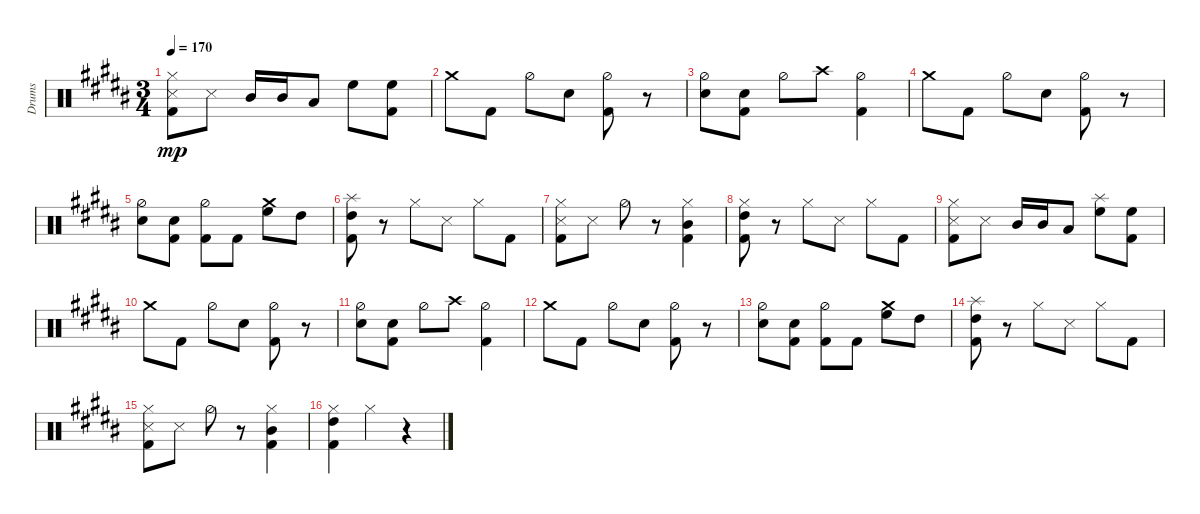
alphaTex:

\defaultSystemsLayout 4
\bracketExtendMode groupsimilarinstruments
\otherSystemsTrackNameOrientation horizontal
\track ("Drumkit" "Drums") {instrument percussion}
\staff {score}
\articulation defaults
\ts (3 4)
\tempo 170
\clef neutral
\ks b
("Hi-Hat (closed)"{acc bb} "Snare (side stick) 3"{acc bb} "Kick (hit) 2"{acc bb}).8{dy mp beam Down} "Snare (side stick) 3"{acc bb}.8{beam Down} "Mid Tom (hit)"{acc bb}.16{beam Up} "Mid Tom (hit)"{acc bb}.16{beam Up} "Low Tom (hit)"{acc bb}.8{beam Up} "High Floor Tom (hit)"{acc bb}.8{beam Down} ("High Floor Tom (hit)"{acc bb} "Kick (hit) 2"{acc bb}).8{beam Down} |
"Crash medium (hit)"{acc bb}.8{beam Down} "Kick (hit) 2"{acc bb}.8{beam Down} "Hi-Hat (half)"{acc bb}.8{beam Down} "Snare (hit) 2"{acc bb}.8{beam Down} ("Hi-Hat (half)"{acc bb} "Kick (hit) 2"{acc bb}).8{beam Down} r.8{beam Down} |
("Hi-Hat (half)"{acc bb} "Snare (hit) 2"{acc bb}).8{beam Down} ("Snare (hit) 2"{acc bb} "Kick (hit) 2"{acc bb}).8{beam Down} "Hi-Hat (half)"{acc bb}.8{beam Down} "Crash high (hit)"{acc bb}.8{beam Down} ("Hi-Hat (half)"{acc bb} "Kick (hit) 2"{acc bb}).4{beam Down} |
"Crash medium (hit)"{acc bb}.8{beam Down} "Kick (hit) 2"{acc bb}.8{beam Down} "Hi-Hat (half)"{acc bb}.8{beam Down} "Snare (hit) 2"{acc bb}.8{beam Down} ("Hi-Hat (half)"{acc bb} "Kick (hit) 2"{acc bb}).8{beam Down} r.8{beam Down} |
("Hi-Hat (half)"{acc bb} "Snare (hit) 2"{acc bb}).8{beam Down} ("Snare (hit) 2"{acc bb} "Kick (hit) 2"{acc bb}).8{beam Down} ("Hi-Hat (half)"{acc bb} "Kick (hit) 2"{acc bb}).8{beam Down} "Kick (hit) 2"{acc bb}.8{beam Down} ("High Floor Tom (hit)"{acc bb} "Crash medium (hit)"{acc bb}).8{beam Down} "High Tom (hit)"{acc bb}.8{beam Down} |
("High Tom (hit)"{acc bb} "Kick (hit) 2"{acc bb} "Splash (hit)"{acc bb}).8{beam Down} r.8{beam Down} "Hi-Hat (closed)"{acc bb}.8{beam Down} "Snare (side stick) 3"{acc bb}.8{beam Down} "Hi-Hat (closed)"{acc bb}.8{beam Down} "Kick (hit) 2"{acc bb}.8{beam Down} |
("Hi-Hat (closed)"{acc bb} "Snare (side stick) 3"{acc bb} "Kick (hit) 2"{acc bb}).8{beam Down} "Snare (side stick) 3"{acc bb}.8{beam Down} "Hi-Hat (half)"{acc bb}.8{beam Down} r.8{beam Down} ("Hi-Hat (closed)"{acc bb} "Kick (hit) 2"{acc bb} "Mid Tom (hit)"{acc bb}).4{beam Down} |
("High Tom (hit)"{acc bb} "Kick (hit) 2"{acc bb} "Hi-Hat (closed)"{acc bb}).8{beam Down} r.8{beam Down} "Hi-Hat (closed)"{acc bb}.8{beam Down} "Snare (side stick) 3"{acc bb}.8{beam Down} "Hi-Hat (closed)"{acc bb}.8{beam Down} "Kick (hit) 2"{acc bb}.8{beam Down} |
("Hi-Hat (closed)"{acc bb} "Snare (side stick) 3"{acc bb} "Kick (hit) 2"{acc bb}).8{beam Down} "Snare (side stick) 3"{acc bb}.8{beam Down} "Mid Tom (hit)"{acc bb}.16{beam Up} "Mid Tom (hit)"{acc bb}.16{beam Up} "Low Tom (hit)"{acc bb}.8{beam Up} ("High Floor Tom (hit)"{acc bb} "Splash (hit)"{acc bb}).8{beam Down} ("High Floor Tom (hit)"{acc bb} "Kick (hit) 2"{acc bb}).8{beam Down} |
"Crash medium (hit)"{acc bb}.8{beam Down} "Kick (hit) 2"{acc bb}.8{beam Down} "Hi-Hat (half)"{acc bb}.8{beam Down} "Snare (hit) 2"{acc bb}.8{beam Down} ("Hi-Hat (half)"{acc bb} "Kick (hit) 2"{acc bb}).8{beam Down} r.8{beam Down} |
("Hi-Hat (half)"{acc bb} "Snare (hit) 2"{acc bb}).8{beam Down} ("Snare (hit) 2"{acc bb} "Kick (hit) 2"{acc bb}).8{beam Down} "Hi-Hat (half)"{acc bb}.8{beam Down} "Crash high (hit)"{acc bb}.8{beam Down} ("Hi-Hat (half)"{acc bb} "Kick (hit) 2"{acc bb}).4{beam Down} |
"Crash medium (hit)"{acc bb}.8{beam Down} "Kick (hit) 2"{acc bb}.8{beam Down} "Hi-Hat (half)"{acc bb}.8{beam Down} "Snare (hit) 2"{acc bb}.8{beam Down} ("Hi-Hat (half)"{acc bb} "Kick (hit) 2"{acc bb}).8{beam Down} r.8{beam Down} |
("Hi-Hat (half)"{acc bb} "Snare (hit) 2"{acc bb}).8{beam Down} ("Snare (hit) 2"{acc bb} "Kick (hit) 2"{acc bb}).8{beam Down} ("Hi-Hat (half)"{acc bb} "Kick (hit) 2"{acc bb}).8{beam Down} "Kick (hit) 2"{acc bb}.8{beam Down} ("High Floor Tom (hit)"{acc bb} "Crash medium (hit)"{acc bb}).8{beam Down} "High Tom (hit)"{acc bb}.8{beam Down} |
("High Tom (hit)"{acc bb} "Kick (hit) 2"{acc bb} "Splash (hit)"{acc bb}).8{beam Down} r.8{beam Down} "Hi-Hat (closed)"{acc bb}.8{beam Down} "Snare (side stick) 3"{acc bb}.8{beam Down} "Hi-Hat (closed)"{acc bb}.8{beam Down} "Kick (hit) 2"{acc bb}.8{beam Down} |
("Hi-Hat (closed)"{acc bb} "Snare (side stick) 3"{acc bb} "Kick (hit) 2"{acc bb}).8{beam Down} "Snare (side stick) 3"{acc bb}.8{beam Down} "Hi-Hat (half)"{acc bb}.8{beam Down} r.8{beam Down} ("Hi-Hat (closed)"{acc bb} "Kick (hit) 2"{acc bb} "Mid Tom (hit)"{acc bb}).4{beam Down} |
("High Tom (hit)"{acc bb} "Kick (hit) 2"{acc bb} "Hi-Hat (closed)"{acc bb}).4{beam Down} "Hi-Hat (closed)"{acc bb}.4{beam Down} r.4{beam Down}
